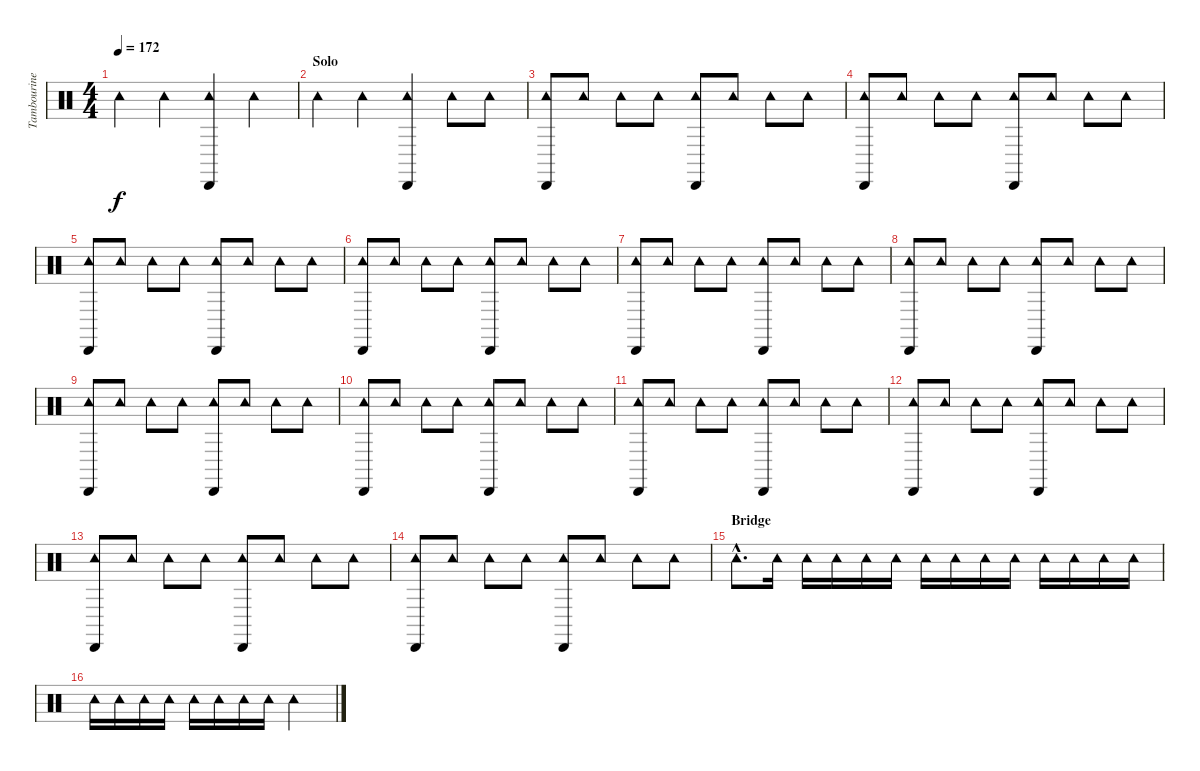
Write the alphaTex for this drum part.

\track ("Tambourine" "Tambourine") {instrument percussion}
\staff {score}
\articulation defaults
\ts (4 4)
\tempo 172
\clef neutral
\ks c "Tambourine (hit)".4{dy f} "Tambourine (hit)".4
("Tambourine (hit)" "Cabasa (hit)").4 "Tambourine (hit)".4 |
\section ("" "Solo ")
"Tambourine (hit)".4 "Tambourine (hit)".4 ("Tambourine (hit)" "Cabasa (hit)").4 "Tambourine (hit)".8 "Tambourine (hit)".8 |
("Tambourine (hit)" "Cabasa (hit)").8 "Tambourine (hit)".8 "Tambourine (hit)".8 "Tambourine (hit)".8 ("Tambourine (hit)" "Cabasa (hit)").8 "Tambourine (hit)".8 "Tambourine (hit)".8 "Tambourine (hit)".8 |
("Tambourine (hit)" "Cabasa (hit)").8 "Tambourine (hit)".8 "Tambourine (hit)".8 "Tambourine (hit)".8 ("Tambourine (hit)" "Cabasa (hit)").8 "Tambourine (hit)".8 "Tambourine (hit)".8 "Tambourine (hit)".8 |
("Tambourine (hit)" "Cabasa (hit)").8 "Tambourine (hit)".8 "Tambourine (hit)".8 "Tambourine (hit)".8 ("Tambourine (hit)" "Cabasa (hit)").8 "Tambourine (hit)".8 "Tambourine (hit)".8 "Tambourine (hit)".8 |
("Tambourine (hit)" "Cabasa (hit)").8 "Tambourine (hit)".8 "Tambourine (hit)".8 "Tambourine (hit)".8 ("Tambourine (hit)" "Cabasa (hit)").8 "Tambourine (hit)".8 "Tambourine (hit)".8 "Tambourine (hit)".8 |
("Tambourine (hit)" "Cabasa (hit)").8 "Tambourine (hit)".8 "Tambourine (hit)".8 "Tambourine (hit)".8 ("Tambourine (hit)" "Cabasa (hit)").8 "Tambourine (hit)".8 "Tambourine (hit)".8 "Tambourine (hit)".8 |
("Tambourine (hit)" "Cabasa (hit)").8 "Tambourine (hit)".8 "Tambourine (hit)".8 "Tambourine (hit)".8 ("Tambourine (hit)" "Cabasa (hit)").8 "Tambourine (hit)".8 "Tambourine (hit)".8 "Tambourine (hit)".8 |
("Tambourine (hit)" "Cabasa (hit)").8 "Tambourine (hit)".8 "Tambourine (hit)".8 "Tambourine (hit)".8 ("Tambourine (hit)" "Cabasa (hit)").8 "Tambourine (hit)".8 "Tambourine (hit)".8 "Tambourine (hit)".8 |
("Tambourine (hit)" "Cabasa (hit)").8 "Tambourine (hit)".8 "Tambourine (hit)".8 "Tambourine (hit)".8 ("Tambourine (hit)" "Cabasa (hit)").8 "Tambourine (hit)".8 "Tambourine (hit)".8 "Tambourine (hit)".8 |
("Tambourine (hit)" "Cabasa (hit)").8 "Tambourine (hit)".8 "Tambourine (hit)".8 "Tambourine (hit)".8 ("Tambourine (hit)" "Cabasa (hit)").8 "Tambourine (hit)".8 "Tambourine (hit)".8 "Tambourine (hit)".8 |
("Tambourine (hit)" "Cabasa (hit)").8 "Tambourine (hit)".8 "Tambourine (hit)".8 "Tambourine (hit)".8 ("Tambourine (hit)" "Cabasa (hit)").8 "Tambourine (hit)".8 "Tambourine (hit)".8 "Tambourine (hit)".8 |
("Tambourine (hit)" "Cabasa (hit)").8 "Tambourine (hit)".8 "Tambourine (hit)".8 "Tambourine (hit)".8 ("Tambourine (hit)" "Cabasa (hit)").8 "Tambourine (hit)".8 "Tambourine (hit)".8 "Tambourine (hit)".8 |
("Tambourine (hit)" "Cabasa (hit)").8 "Tambourine (hit)".8 "Tambourine (hit)".8 "Tambourine (hit)".8 ("Tambourine (hit)" "Cabasa (hit)").8 "Tambourine (hit)".8 "Tambourine (hit)".8 "Tambourine (hit)".8 |
\section ("" "Bridge")
"Tambourine (hit)"{hac}.8{d} "Tambourine (hit)".16 "Tambourine (hit)".16 "Tambourine (hit)".16 "Tambourine (hit)".16 "Tambourine (hit)".16 "Tambourine (hit)".16 "Tambourine (hit)".16 "Tambourine (hit)".16 "Tambourine (hit)".16 "Tambourine (hit)".16 "Tambourine (hit)".16 "Tambourine (hit)".16 "Tambourine (hit)".16 |
"Tambourine (hit)".16 "Tambourine (hit)".16 "Tambourine (hit)".16 "Tambourine (hit)".16 "Tambourine (hit)".16 "Tambourine (hit)".16 "Tambourine (hit)".16 "Tambourine (hit)".16 "Tambourine (hit)".2
